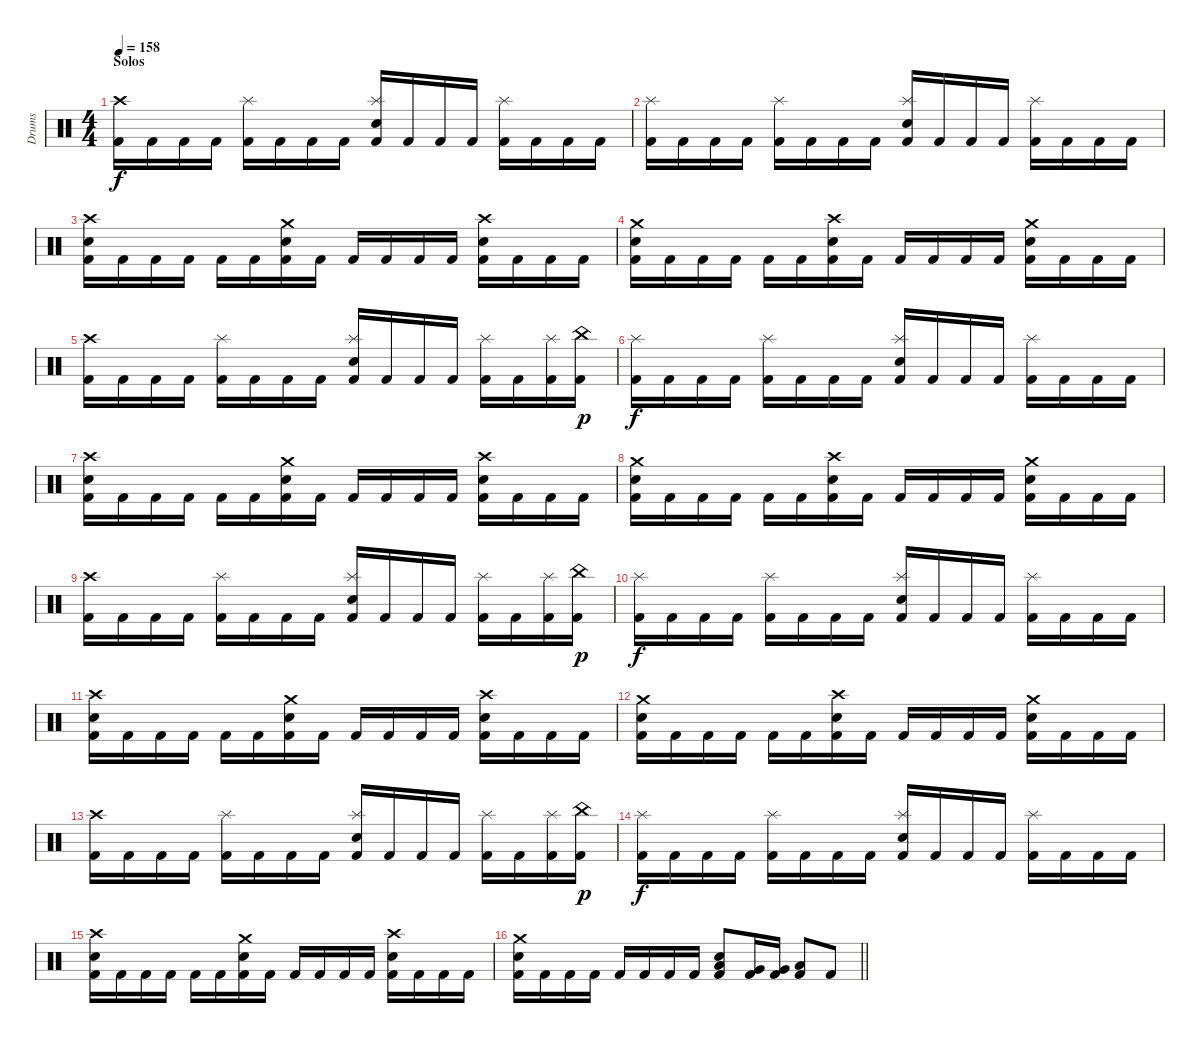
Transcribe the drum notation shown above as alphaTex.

\track ("Drums" "Drums") {instrument percussion}
\staff {score}
\articulation defaults
\ts (4 4)
\section ("" "Solos")
\tempo 158
\clef neutral
\ks c
("Crash high (hit)" "Kick (hit) 2").16{dy f} "Kick (hit) 2".16 "Kick (hit) 2".16 "Kick (hit) 2".16 ("Splash (hit)" "Kick (hit) 2").16 "Kick (hit) 2".16 "Kick (hit) 2".16 "Kick (hit) 2".16 ("Splash (hit)" "Snare (hit) 2" "Kick (hit) 2").16 "Kick (hit) 2".16 "Kick (hit) 2".16 "Kick (hit) 2".16 ("Splash (hit)" "Kick (hit) 2").16 "Kick (hit) 2".16 "Kick (hit) 2".16 "Kick (hit) 2".16 |
("Splash (hit)" "Kick (hit) 2").16 "Kick (hit) 2".16 "Kick (hit) 2".16 "Kick (hit) 2".16 ("Splash (hit)" "Kick (hit) 2").16 "Kick (hit) 2".16 "Kick (hit) 2".16 "Kick (hit) 2".16 ("Splash (hit)" "Snare (hit) 2" "Kick (hit) 2").16 "Kick (hit) 2".16 "Kick (hit) 2".16 "Kick (hit) 2".16 ("Splash (hit)" "Kick (hit) 2").16 "Kick (hit) 2".16 "Kick (hit) 2".16 "Kick (hit) 2".16 |
("Crash high (hit)" "Snare (hit) 2" "Kick (hit) 2").16 "Kick (hit) 2".16 "Kick (hit) 2".16 "Kick (hit) 2".16 "Kick (hit) 2".16 "Kick (hit) 2".16 ("Crash medium (hit)" "Snare (hit) 2" "Kick (hit) 2").16 "Kick (hit) 2".16 "Kick (hit) 2".16 "Kick (hit) 2".16 "Kick (hit) 2".16 "Kick (hit) 2".16 ("Crash high (hit)" "Snare (hit) 2" "Kick (hit) 2").16 "Kick (hit) 2".16 "Kick (hit) 2".16 "Kick (hit) 2".16 |
("Crash medium (hit)" "Snare (hit) 2" "Kick (hit) 2").16 "Kick (hit) 2".16 "Kick (hit) 2".16 "Kick (hit) 2".16 "Kick (hit) 2".16 "Kick (hit) 2".16 ("Crash high (hit)" "Snare (hit) 2" "Kick (hit) 2").16 "Kick (hit) 2".16 "Kick (hit) 2".16 "Kick (hit) 2".16 "Kick (hit) 2".16 "Kick (hit) 2".16 ("Crash medium (hit)" "Snare (hit) 2" "Kick (hit) 2").16 "Kick (hit) 2".16 "Kick (hit) 2".16 "Kick (hit) 2".16 |
("Crash high (hit)" "Kick (hit) 2").16 "Kick (hit) 2".16 "Kick (hit) 2".16 "Kick (hit) 2".16 ("Splash (hit)" "Kick (hit) 2").16 "Kick (hit) 2".16 "Kick (hit) 2".16 "Kick (hit) 2".16 ("Splash (hit)" "Snare (hit) 2" "Kick (hit) 2").16 "Kick (hit) 2".16 "Kick (hit) 2".16 "Kick (hit) 2".16 ("Splash (hit)" "Kick (hit) 2").16 "Kick (hit) 2".16 ("Splash (hit)" "Kick (hit) 2").16 ("China (hit)" "Kick (hit) 2").16{dy p} |
("Splash (hit)" "Kick (hit) 2").16{dy f} "Kick (hit) 2".16 "Kick (hit) 2".16 "Kick (hit) 2".16 ("Splash (hit)" "Kick (hit) 2").16 "Kick (hit) 2".16 "Kick (hit) 2".16 "Kick (hit) 2".16 ("Splash (hit)" "Snare (hit) 2" "Kick (hit) 2").16 "Kick (hit) 2".16 "Kick (hit) 2".16 "Kick (hit) 2".16 ("Splash (hit)" "Kick (hit) 2").16 "Kick (hit) 2".16 "Kick (hit) 2".16 "Kick (hit) 2".16 |
("Crash high (hit)" "Snare (hit) 2" "Kick (hit) 2").16 "Kick (hit) 2".16 "Kick (hit) 2".16 "Kick (hit) 2".16 "Kick (hit) 2".16 "Kick (hit) 2".16 ("Crash medium (hit)" "Snare (hit) 2" "Kick (hit) 2").16 "Kick (hit) 2".16 "Kick (hit) 2".16 "Kick (hit) 2".16 "Kick (hit) 2".16 "Kick (hit) 2".16 ("Crash high (hit)" "Snare (hit) 2" "Kick (hit) 2").16 "Kick (hit) 2".16 "Kick (hit) 2".16 "Kick (hit) 2".16 |
("Crash medium (hit)" "Snare (hit) 2" "Kick (hit) 2").16 "Kick (hit) 2".16 "Kick (hit) 2".16 "Kick (hit) 2".16 "Kick (hit) 2".16 "Kick (hit) 2".16 ("Crash high (hit)" "Snare (hit) 2" "Kick (hit) 2").16 "Kick (hit) 2".16 "Kick (hit) 2".16 "Kick (hit) 2".16 "Kick (hit) 2".16 "Kick (hit) 2".16 ("Crash medium (hit)" "Snare (hit) 2" "Kick (hit) 2").16 "Kick (hit) 2".16 "Kick (hit) 2".16 "Kick (hit) 2".16 |
("Crash high (hit)" "Kick (hit) 2").16 "Kick (hit) 2".16 "Kick (hit) 2".16 "Kick (hit) 2".16 ("Splash (hit)" "Kick (hit) 2").16 "Kick (hit) 2".16 "Kick (hit) 2".16 "Kick (hit) 2".16 ("Splash (hit)" "Snare (hit) 2" "Kick (hit) 2").16 "Kick (hit) 2".16 "Kick (hit) 2".16 "Kick (hit) 2".16 ("Splash (hit)" "Kick (hit) 2").16 "Kick (hit) 2".16 ("Splash (hit)" "Kick (hit) 2").16 ("China (hit)" "Kick (hit) 2").16{dy p} |
("Splash (hit)" "Kick (hit) 2").16{dy f} "Kick (hit) 2".16 "Kick (hit) 2".16 "Kick (hit) 2".16 ("Splash (hit)" "Kick (hit) 2").16 "Kick (hit) 2".16 "Kick (hit) 2".16 "Kick (hit) 2".16 ("Splash (hit)" "Snare (hit) 2" "Kick (hit) 2").16 "Kick (hit) 2".16 "Kick (hit) 2".16 "Kick (hit) 2".16 ("Splash (hit)" "Kick (hit) 2").16 "Kick (hit) 2".16 "Kick (hit) 2".16 "Kick (hit) 2".16 |
("Crash high (hit)" "Snare (hit) 2" "Kick (hit) 2").16 "Kick (hit) 2".16 "Kick (hit) 2".16 "Kick (hit) 2".16 "Kick (hit) 2".16 "Kick (hit) 2".16 ("Crash medium (hit)" "Snare (hit) 2" "Kick (hit) 2").16 "Kick (hit) 2".16 "Kick (hit) 2".16 "Kick (hit) 2".16 "Kick (hit) 2".16 "Kick (hit) 2".16 ("Crash high (hit)" "Snare (hit) 2" "Kick (hit) 2").16 "Kick (hit) 2".16 "Kick (hit) 2".16 "Kick (hit) 2".16 |
("Crash medium (hit)" "Snare (hit) 2" "Kick (hit) 2").16 "Kick (hit) 2".16 "Kick (hit) 2".16 "Kick (hit) 2".16 "Kick (hit) 2".16 "Kick (hit) 2".16 ("Crash high (hit)" "Snare (hit) 2" "Kick (hit) 2").16 "Kick (hit) 2".16 "Kick (hit) 2".16 "Kick (hit) 2".16 "Kick (hit) 2".16 "Kick (hit) 2".16 ("Crash medium (hit)" "Snare (hit) 2" "Kick (hit) 2").16 "Kick (hit) 2".16 "Kick (hit) 2".16 "Kick (hit) 2".16 |
("Crash high (hit)" "Kick (hit) 2").16 "Kick (hit) 2".16 "Kick (hit) 2".16 "Kick (hit) 2".16 ("Splash (hit)" "Kick (hit) 2").16 "Kick (hit) 2".16 "Kick (hit) 2".16 "Kick (hit) 2".16 ("Splash (hit)" "Snare (hit) 2" "Kick (hit) 2").16 "Kick (hit) 2".16 "Kick (hit) 2".16 "Kick (hit) 2".16 ("Splash (hit)" "Kick (hit) 2").16 "Kick (hit) 2".16 ("Splash (hit)" "Kick (hit) 2").16 ("China (hit)" "Kick (hit) 2").16{dy p} |
("Splash (hit)" "Kick (hit) 2").16{dy f} "Kick (hit) 2".16 "Kick (hit) 2".16 "Kick (hit) 2".16 ("Splash (hit)" "Kick (hit) 2").16 "Kick (hit) 2".16 "Kick (hit) 2".16 "Kick (hit) 2".16 ("Splash (hit)" "Snare (hit) 2" "Kick (hit) 2").16 "Kick (hit) 2".16 "Kick (hit) 2".16 "Kick (hit) 2".16 ("Splash (hit)" "Kick (hit) 2").16 "Kick (hit) 2".16 "Kick (hit) 2".16 "Kick (hit) 2".16 |
("Crash high (hit)" "Snare (hit) 2" "Kick (hit) 2").16 "Kick (hit) 2".16 "Kick (hit) 2".16 "Kick (hit) 2".16 "Kick (hit) 2".16 "Kick (hit) 2".16 ("Crash medium (hit)" "Snare (hit) 2" "Kick (hit) 2").16 "Kick (hit) 2".16 "Kick (hit) 2".16 "Kick (hit) 2".16 "Kick (hit) 2".16 "Kick (hit) 2".16 ("Crash high (hit)" "Snare (hit) 2" "Kick (hit) 2").16 "Kick (hit) 2".16 "Kick (hit) 2".16 "Kick (hit) 2".16 |
\barLineRight lightlight
("Crash medium (hit)" "Snare (hit) 2" "Kick (hit) 2").16 "Kick (hit) 2".16 "Kick (hit) 2".16 "Kick (hit) 2".16 "Kick (hit) 2".16 "Kick (hit) 2".16 "Kick (hit) 2".16 "Kick (hit) 2".16 ("Low Floor Tom (hit)" "Snare (hit) 2" "Kick (hit) 2").8 ("Very Low Tom (hit)" "Kick (hit) 2").16 ("Very Low Tom (hit)" "Kick (hit) 2").16 ("Low Floor Tom (hit)" "Kick (hit) 2").8 "Kick (hit) 2".8
